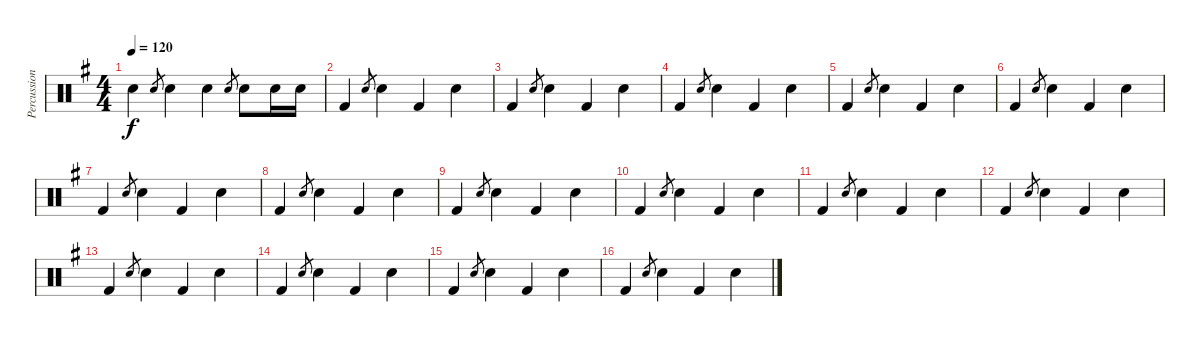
\track ("Percussion" "Percussion") {instrument percussion}
\staff {score}
\articulation defaults
\ts (4 4)
\tempo 120
\clef neutral
\ks eminor "Snare (hit) 2".4{dy f} "Snare (hit) 2".8{gr} "Snare (hit) 2".4 "Snare (hit) 2".4 "Snare (hit) 2".8{gr} "Snare (hit) 2".8 "Snare (hit) 2".16 "Snare (hit) 2".16
|
"Kick (hit) 2".4 "Snare (hit) 2".8{gr} "Snare (hit) 2".4 "Kick (hit) 2".4 "Snare (hit) 2".4 |
"Kick (hit) 2".4 "Snare (hit) 2".8{gr} "Snare (hit) 2".4 "Kick (hit) 2".4 "Snare (hit) 2".4 |
"Kick (hit) 2".4 "Snare (hit) 2".8{gr} "Snare (hit) 2".4 "Kick (hit) 2".4 "Snare (hit) 2".4 |
"Kick (hit) 2".4 "Snare (hit) 2".8{gr} "Snare (hit) 2".4 "Kick (hit) 2".4 "Snare (hit) 2".4 |
"Kick (hit) 2".4 "Snare (hit) 2".8{gr} "Snare (hit) 2".4 "Kick (hit) 2".4 "Snare (hit) 2".4 |
"Kick (hit) 2".4 "Snare (hit) 2".8{gr} "Snare (hit) 2".4 "Kick (hit) 2".4 "Snare (hit) 2".4 |
"Kick (hit) 2".4 "Snare (hit) 2".8{gr} "Snare (hit) 2".4 "Kick (hit) 2".4 "Snare (hit) 2".4 |
"Kick (hit) 2".4 "Snare (hit) 2".8{gr} "Snare (hit) 2".4 "Kick (hit) 2".4 "Snare (hit) 2".4 |
"Kick (hit) 2".4 "Snare (hit) 2".8{gr} "Snare (hit) 2".4 "Kick (hit) 2".4 "Snare (hit) 2".4 |
"Kick (hit) 2".4 "Snare (hit) 2".8{gr} "Snare (hit) 2".4 "Kick (hit) 2".4 "Snare (hit) 2".4 |
"Kick (hit) 2".4 "Snare (hit) 2".8{gr} "Snare (hit) 2".4 "Kick (hit) 2".4 "Snare (hit) 2".4 |
"Kick (hit) 2".4 "Snare (hit) 2".8{gr} "Snare (hit) 2".4 "Kick (hit) 2".4 "Snare (hit) 2".4 |
"Kick (hit) 2".4 "Snare (hit) 2".8{gr} "Snare (hit) 2".4 "Kick (hit) 2".4 "Snare (hit) 2".4 |
"Kick (hit) 2".4 "Snare (hit) 2".8{gr} "Snare (hit) 2".4 "Kick (hit) 2".4 "Snare (hit) 2".4 |
"Kick (hit) 2".4 "Snare (hit) 2".8{gr} "Snare (hit) 2".4 "Kick (hit) 2".4 "Snare (hit) 2".4
